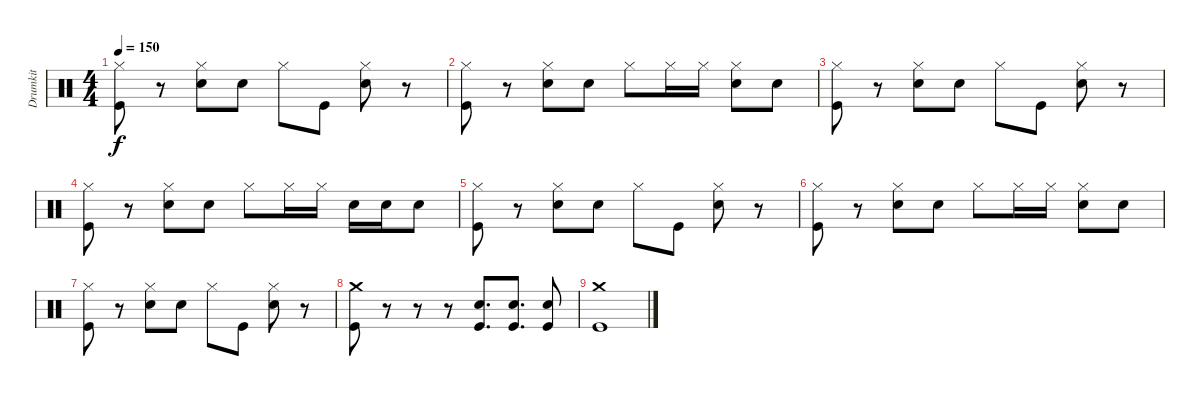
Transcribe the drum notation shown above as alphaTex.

\track ("Drumkit" "Drumkit") {instrument percussion}
\staff {score}
\articulation defaults
\ts (4 4)
\tempo 150
\clef neutral
\ks c
("Kick (hit)" "Hi-Hat (closed)").8{dy f} r.8 ("Hi-Hat (closed)" "Snare (hit) 2").8 "Snare (hit) 2".8 "Hi-Hat (closed)".8 "Kick (hit)".8 ("Hi-Hat (closed)" "Snare (hit) 2").8 r.8 |
("Kick (hit)" "Hi-Hat (closed)").8 r.8 ("Hi-Hat (closed)" "Snare (hit) 2").8 "Snare (hit) 2".8 "Hi-Hat (closed)".8 "Hi-Hat (closed)".16 "Hi-Hat (closed)".16 ("Hi-Hat (closed)" "Snare (hit) 2").8 "Snare (hit) 2".8 |
("Kick (hit)" "Hi-Hat (closed)").8 r.8 ("Hi-Hat (closed)" "Snare (hit) 2").8 "Snare (hit) 2".8 "Hi-Hat (closed)".8 "Kick (hit)".8 ("Hi-Hat (closed)" "Snare (hit) 2").8 r.8 |
("Kick (hit)" "Hi-Hat (closed)").8 r.8 ("Hi-Hat (closed)" "Snare (hit) 2").8 "Snare (hit) 2".8 "Hi-Hat (closed)".8 "Hi-Hat (closed)".16 "Hi-Hat (closed)".16 "Snare (hit) 2".16 "Snare (hit) 2".16 "Snare (hit) 2".8 |
("Kick (hit)" "Hi-Hat (closed)").8 r.8 ("Hi-Hat (closed)" "Snare (hit) 2").8 "Snare (hit) 2".8 "Hi-Hat (closed)".8 "Kick (hit)".8 ("Hi-Hat (closed)" "Snare (hit) 2").8 r.8 |
("Kick (hit)" "Hi-Hat (closed)").8 r.8 ("Hi-Hat (closed)" "Snare (hit) 2").8 "Snare (hit) 2".8 "Hi-Hat (closed)".8 "Hi-Hat (closed)".16 "Hi-Hat (closed)".16 ("Hi-Hat (closed)" "Snare (hit) 2").8 "Snare (hit) 2".8 |
("Kick (hit)" "Hi-Hat (closed)").8 r.8 ("Hi-Hat (closed)" "Snare (hit) 2").8 "Snare (hit) 2".8 "Hi-Hat (closed)".8 "Kick (hit)".8 ("Hi-Hat (closed)" "Snare (hit) 2").8 r.8 |
("Kick (hit)" "Crash medium (hit)").8 r.8 r.8 r.8 ("Snare (hit) 2" "Kick (hit)").8{d} ("Snare (hit) 2" "Kick (hit)").8{d} ("Snare (hit) 2" "Kick (hit)").8 |
("Kick (hit)" "Crash medium (hit)").1
